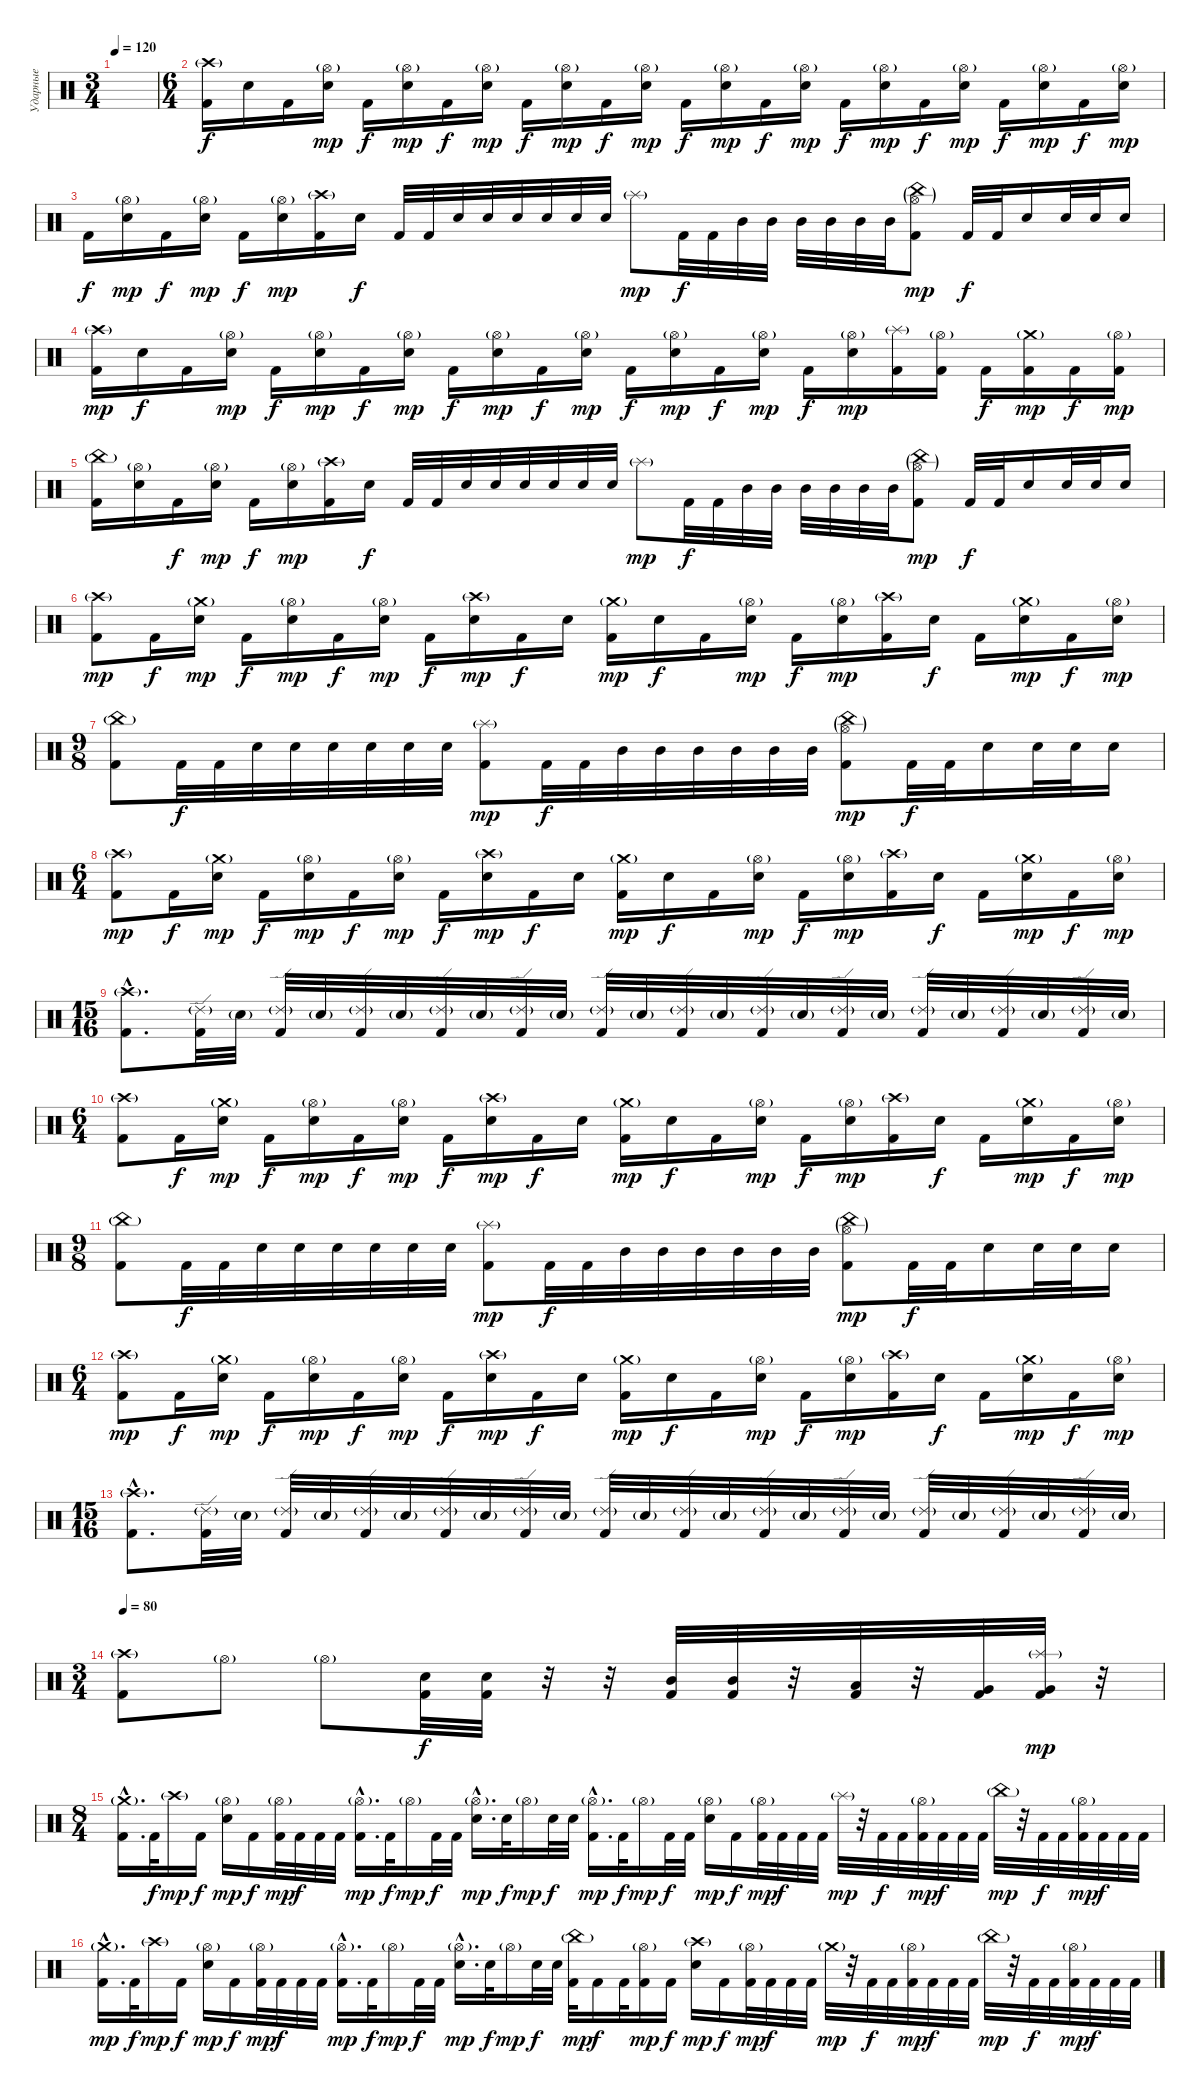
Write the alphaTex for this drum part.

\track ("Ударные" "Ударные") {instrument percussion}
\staff {score}
\articulation defaults
\ts (3 4)
\tempo 120
\clef neutral
\ks c
|
\ts (6 4)
("Crash high (hit)"{g} "Kick (hit) 2").16 "Electric Snare (hit)".16{dy f} "Kick (hit) 2".16 ("Hi-Hat (open)"{g} "Electric Snare (hit)").16{dy mp} "Kick (hit) 2".16{dy f} ("Hi-Hat (open)"{g} "Electric Snare (hit)").16{dy mp} "Kick (hit) 2".16{dy f} ("Hi-Hat (open)"{g} "Electric Snare (hit)").16{dy mp} "Kick (hit) 2".16{dy f} ("Hi-Hat (open)"{g} "Electric Snare (hit)").16{dy mp} "Kick (hit) 2".16{dy f} ("Hi-Hat (open)"{g} "Electric Snare (hit)").16{dy mp} "Kick (hit) 2".16{dy f} ("Hi-Hat (open)"{g} "Electric Snare (hit)").16{dy mp} "Kick (hit) 2".16{dy f} ("Hi-Hat (open)"{g} "Electric Snare (hit)").16{dy mp} "Kick (hit) 2".16{dy f} ("Hi-Hat (open)"{g} "Electric Snare (hit)").16{dy mp} "Kick (hit) 2".16{dy f} ("Hi-Hat (open)"{g} "Electric Snare (hit)").16{dy mp} "Kick (hit) 2".16{dy f} ("Hi-Hat (open)"{g} "Electric Snare (hit)").16{dy mp} "Kick (hit) 2".16{dy f} ("Hi-Hat (open)"{g} "Electric Snare (hit)").16{dy mp} |
"Kick (hit) 2".16{dy f} ("Hi-Hat (open)"{g} "Electric Snare (hit)").16{dy mp} "Kick (hit) 2".16{dy f} ("Hi-Hat (open)"{g} "Electric Snare (hit)").16{dy mp} "Kick (hit) 2".16{dy f} ("Hi-Hat (open)"{g} "Electric Snare (hit)").16{dy mp} ("Crash high (hit)"{g} "Kick (hit) 2").16 "Electric Snare (hit)".16{dy f} "Kick (hit) 2".32 "Kick (hit) 2".32 "Electric Snare (hit)".32 "Electric Snare (hit)".32 "Electric Snare (hit)".32 "Electric Snare (hit)".32 "Electric Snare (hit)".32 "Electric Snare (hit)".32 "Splash (hit)"{g}.8{dy mp} "Kick (hit) 2".32{dy f} "Kick (hit) 2".32 "Mid Tom (hit)".32 "Mid Tom (hit)".32 "Mid Tom (hit)".32 "Mid Tom (hit)".32 "Mid Tom (hit)".32 "Mid Tom (hit)".32 ("Hi-Hat (open)"{g} "China (hit)"{g} "Kick (hit) 2").8{dy mp} "Kick (hit) 2".32{dy f} "Kick (hit) 2".32 "Electric Snare (hit)".16 "Electric Snare (hit)".32 "Electric Snare (hit)".32 "Electric Snare (hit)".16 |
("Crash high (hit)"{g} "Kick (hit) 2").16{dy mp} "Electric Snare (hit)".16{dy f} "Kick (hit) 2".16 ("Hi-Hat (open)"{g} "Electric Snare (hit)").16{dy mp} "Kick (hit) 2".16{dy f} ("Hi-Hat (open)"{g} "Electric Snare (hit)").16{dy mp} "Kick (hit) 2".16{dy f} ("Hi-Hat (open)"{g} "Electric Snare (hit)").16{dy mp} "Kick (hit) 2".16{dy f} ("Hi-Hat (open)"{g} "Electric Snare (hit)").16{dy mp} "Kick (hit) 2".16{dy f} ("Hi-Hat (open)"{g} "Electric Snare (hit)").16{dy mp} "Kick (hit) 2".16{dy f} ("Hi-Hat (open)"{g} "Electric Snare (hit)").16{dy mp} "Kick (hit) 2".16{dy f} ("Hi-Hat (open)"{g} "Electric Snare (hit)").16{dy mp} "Kick (hit) 2".16{dy f} ("Hi-Hat (open)"{g} "Electric Snare (hit)").16{dy mp} ("Splash (hit)"{g} "Kick (hit) 2").16 ("Hi-Hat (open)"{g} "Kick (hit) 2").16 "Kick (hit) 2".16{dy f} ("Crash medium (hit)"{g} "Kick (hit) 2").16{dy mp} "Kick (hit) 2".16{dy f} ("Hi-Hat (open)"{g} "Kick (hit) 2").16{dy mp} |
("China (hit)"{g} "Kick (hit) 2").16 ("Hi-Hat (open)"{g} "Electric Snare (hit)").16 "Kick (hit) 2".16{dy f} ("Hi-Hat (open)"{g} "Electric Snare (hit)").16{dy mp} "Kick (hit) 2".16{dy f} ("Hi-Hat (open)"{g} "Electric Snare (hit)").16{dy mp} ("Crash high (hit)"{g} "Kick (hit) 2").16 "Electric Snare (hit)".16{dy f} "Kick (hit) 2".32 "Kick (hit) 2".32 "Electric Snare (hit)".32 "Electric Snare (hit)".32 "Electric Snare (hit)".32 "Electric Snare (hit)".32 "Electric Snare (hit)".32 "Electric Snare (hit)".32 "Splash (hit)"{g}.8{dy mp} "Kick (hit) 2".32{dy f} "Kick (hit) 2".32 "Mid Tom (hit)".32 "Mid Tom (hit)".32 "Mid Tom (hit)".32 "Mid Tom (hit)".32 "Mid Tom (hit)".32 "Mid Tom (hit)".32 ("Hi-Hat (open)"{g} "China (hit)"{g} "Kick (hit) 2").8{dy mp} "Kick (hit) 2".32{dy f} "Kick (hit) 2".32 "Electric Snare (hit)".16 "Electric Snare (hit)".32 "Electric Snare (hit)".32 "Electric Snare (hit)".16 |
("Crash high (hit)"{g} "Kick (hit) 2").8{dy mp} "Kick (hit) 2".16{dy f} ("Crash medium (hit)"{g} "Electric Snare (hit)").16{dy mp} "Kick (hit) 2".16{dy f} ("Hi-Hat (open)"{g} "Electric Snare (hit)").16{dy mp} "Kick (hit) 2".16{dy f} ("Hi-Hat (open)"{g} "Electric Snare (hit)").16{dy mp} "Kick (hit) 2".16{dy f} ("Crash high (hit)"{g} "Electric Snare (hit)").16{dy mp} "Kick (hit) 2".16{dy f} "Electric Snare (hit)".16 ("Crash medium (hit)"{g} "Kick (hit) 2").16{dy mp} "Electric Snare (hit)".16{dy f} "Kick (hit) 2".16 ("Hi-Hat (open)"{g} "Electric Snare (hit)").16{dy mp} "Kick (hit) 2".16{dy f} ("Hi-Hat (open)"{g} "Electric Snare (hit)").16{dy mp} ("Crash high (hit)"{g} "Kick (hit) 2").16 "Electric Snare (hit)".16{dy f} "Kick (hit) 2".16 ("Crash medium (hit)"{g} "Electric Snare (hit)").16{dy mp} "Kick (hit) 2".16{dy f} ("Hi-Hat (open)"{g} "Electric Snare (hit)").16{dy mp} |
\ts (9 8)
("China (hit)"{g} "Kick (hit) 2").8 "Kick (hit) 2".32{dy f} "Kick (hit) 2".32 "Electric Snare (hit)".32 "Electric Snare (hit)".32 "Electric Snare (hit)".32 "Electric Snare (hit)".32 "Electric Snare (hit)".32 "Electric Snare (hit)".32 ("Splash (hit)"{g} "Kick (hit) 2").8{dy mp} "Kick (hit) 2".32{dy f} "Kick (hit) 2".32 "Mid Tom (hit)".32 "Mid Tom (hit)".32 "Mid Tom (hit)".32 "Mid Tom (hit)".32 "Mid Tom (hit)".32 "Mid Tom (hit)".32 ("China (hit)"{g} "Hi-Hat (open)"{g} "Kick (hit) 2").8{dy mp} "Kick (hit) 2".32{dy f} "Kick (hit) 2".32 "Electric Snare (hit)".16 "Electric Snare (hit)".32 "Electric Snare (hit)".32 "Electric Snare (hit)".16 |
\ts (6 4)
("Crash high (hit)"{g} "Kick (hit) 2").8{dy mp} "Kick (hit) 2".16{dy f} ("Crash medium (hit)"{g} "Electric Snare (hit)").16{dy mp} "Kick (hit) 2".16{dy f} ("Hi-Hat (open)"{g} "Electric Snare (hit)").16{dy mp} "Kick (hit) 2".16{dy f} ("Hi-Hat (open)"{g} "Electric Snare (hit)").16{dy mp} "Kick (hit) 2".16{dy f} ("Crash high (hit)"{g} "Electric Snare (hit)").16{dy mp} "Kick (hit) 2".16{dy f} "Electric Snare (hit)".16 ("Crash medium (hit)"{g} "Kick (hit) 2").16{dy mp} "Electric Snare (hit)".16{dy f} "Kick (hit) 2".16 ("Hi-Hat (open)"{g} "Electric Snare (hit)").16{dy mp} "Kick (hit) 2".16{dy f} ("Hi-Hat (open)"{g} "Electric Snare (hit)").16{dy mp} ("Crash high (hit)"{g} "Kick (hit) 2").16 "Electric Snare (hit)".16{dy f} "Kick (hit) 2".16 ("Crash medium (hit)"{g} "Electric Snare (hit)").16{dy mp} "Kick (hit) 2".16{dy f} ("Hi-Hat (open)"{g} "Electric Snare (hit)").16{dy mp} |
\ts (15 16)
("Crash high (hit)"{g hac} "Kick (hit) 2"{hac}).8{d} ("Ride (edge) 2"{g} "Kick (hit) 2").32 "Electric Snare (hit)"{g}.32 ("Ride (edge) 2"{g} "Kick (hit) 2").32 "Electric Snare (hit)"{g}.32 ("Ride (edge) 2"{g} "Kick (hit) 2").32 "Electric Snare (hit)"{g}.32 ("Ride (edge) 2"{g} "Kick (hit) 2").32 "Electric Snare (hit)"{g}.32 ("Ride (edge) 2"{g} "Kick (hit) 2").32 "Electric Snare (hit)"{g}.32 ("Ride (edge) 2"{g} "Kick (hit) 2").32 "Electric Snare (hit)"{g}.32 ("Ride (edge) 2"{g} "Kick (hit) 2").32 "Electric Snare (hit)"{g}.32 ("Ride (edge) 2"{g} "Kick (hit) 2").32 "Electric Snare (hit)"{g}.32 ("Ride (edge) 2"{g} "Kick (hit) 2").32 "Electric Snare (hit)"{g}.32 ("Ride (edge) 2"{g} "Kick (hit) 2").32 "Electric Snare (hit)"{g}.32 ("Ride (edge) 2"{g} "Kick (hit) 2").32 "Electric Snare (hit)"{g}.32 ("Ride (edge) 2"{g} "Kick (hit) 2").32 "Electric Snare (hit)"{g}.32 |
\ts (6 4)
("Crash high (hit)"{g} "Kick (hit) 2").8 "Kick (hit) 2".16{dy f} ("Crash medium (hit)"{g} "Electric Snare (hit)").16{dy mp} "Kick (hit) 2".16{dy f} ("Hi-Hat (open)"{g} "Electric Snare (hit)").16{dy mp} "Kick (hit) 2".16{dy f} ("Hi-Hat (open)"{g} "Electric Snare (hit)").16{dy mp} "Kick (hit) 2".16{dy f} ("Crash high (hit)"{g} "Electric Snare (hit)").16{dy mp} "Kick (hit) 2".16{dy f} "Electric Snare (hit)".16 ("Crash medium (hit)"{g} "Kick (hit) 2").16{dy mp} "Electric Snare (hit)".16{dy f} "Kick (hit) 2".16 ("Hi-Hat (open)"{g} "Electric Snare (hit)").16{dy mp} "Kick (hit) 2".16{dy f} ("Hi-Hat (open)"{g} "Electric Snare (hit)").16{dy mp} ("Crash high (hit)"{g} "Kick (hit) 2").16 "Electric Snare (hit)".16{dy f} "Kick (hit) 2".16 ("Crash medium (hit)"{g} "Electric Snare (hit)").16{dy mp} "Kick (hit) 2".16{dy f} ("Hi-Hat (open)"{g} "Electric Snare (hit)").16{dy mp} |
\ts (9 8)
("China (hit)"{g} "Kick (hit) 2").8 "Kick (hit) 2".32{dy f} "Kick (hit) 2".32 "Electric Snare (hit)".32 "Electric Snare (hit)".32 "Electric Snare (hit)".32 "Electric Snare (hit)".32 "Electric Snare (hit)".32 "Electric Snare (hit)".32 ("Splash (hit)"{g} "Kick (hit) 2").8{dy mp} "Kick (hit) 2".32{dy f} "Kick (hit) 2".32 "Mid Tom (hit)".32 "Mid Tom (hit)".32 "Mid Tom (hit)".32 "Mid Tom (hit)".32 "Mid Tom (hit)".32 "Mid Tom (hit)".32 ("China (hit)"{g} "Hi-Hat (open)"{g} "Kick (hit) 2").8{dy mp} "Kick (hit) 2".32{dy f} "Kick (hit) 2".32 "Electric Snare (hit)".16 "Electric Snare (hit)".32 "Electric Snare (hit)".32 "Electric Snare (hit)".16 |
\ts (6 4)
("Crash high (hit)"{g} "Kick (hit) 2").8{dy mp} "Kick (hit) 2".16{dy f} ("Crash medium (hit)"{g} "Electric Snare (hit)").16{dy mp} "Kick (hit) 2".16{dy f} ("Hi-Hat (open)"{g} "Electric Snare (hit)").16{dy mp} "Kick (hit) 2".16{dy f} ("Hi-Hat (open)"{g} "Electric Snare (hit)").16{dy mp} "Kick (hit) 2".16{dy f} ("Crash high (hit)"{g} "Electric Snare (hit)").16{dy mp} "Kick (hit) 2".16{dy f} "Electric Snare (hit)".16 ("Crash medium (hit)"{g} "Kick (hit) 2").16{dy mp} "Electric Snare (hit)".16{dy f} "Kick (hit) 2".16 ("Hi-Hat (open)"{g} "Electric Snare (hit)").16{dy mp} "Kick (hit) 2".16{dy f} ("Hi-Hat (open)"{g} "Electric Snare (hit)").16{dy mp} ("Crash high (hit)"{g} "Kick (hit) 2").16 "Electric Snare (hit)".16{dy f} "Kick (hit) 2".16 ("Crash medium (hit)"{g} "Electric Snare (hit)").16{dy mp} "Kick (hit) 2".16{dy f} ("Hi-Hat (open)"{g} "Electric Snare (hit)").16{dy mp} |
\ts (15 16)
("Crash high (hit)"{g hac} "Kick (hit) 2"{hac}).8{d} ("Ride (edge) 2"{g} "Kick (hit) 2").32 "Electric Snare (hit)"{g}.32 ("Ride (edge) 2"{g} "Kick (hit) 2").32 "Electric Snare (hit)"{g}.32 ("Ride (edge) 2"{g} "Kick (hit) 2").32 "Electric Snare (hit)"{g}.32 ("Ride (edge) 2"{g} "Kick (hit) 2").32 "Electric Snare (hit)"{g}.32 ("Ride (edge) 2"{g} "Kick (hit) 2").32 "Electric Snare (hit)"{g}.32 ("Ride (edge) 2"{g} "Kick (hit) 2").32 "Electric Snare (hit)"{g}.32 ("Ride (edge) 2"{g} "Kick (hit) 2").32 "Electric Snare (hit)"{g}.32 ("Ride (edge) 2"{g} "Kick (hit) 2").32 "Electric Snare (hit)"{g}.32 ("Ride (edge) 2"{g} "Kick (hit) 2").32 "Electric Snare (hit)"{g}.32 ("Ride (edge) 2"{g} "Kick (hit) 2").32 "Electric Snare (hit)"{g}.32 ("Ride (edge) 2"{g} "Kick (hit) 2").32 "Electric Snare (hit)"{g}.32 ("Ride (edge) 2"{g} "Kick (hit) 2").32 "Electric Snare (hit)"{g}.32 |
\ts (3 4)
\tempo 80
("Crash high (hit)"{g} "Kick (hit) 2").8 "Hi-Hat (open)"{g}.8 "Hi-Hat (open)"{g}.8 ("Electric Snare (hit)" "Kick (hit) 2").32{dy f} ("Electric Snare (hit)" "Kick (hit) 2").32 r.32 r.32 ("Mid Tom (hit)" "Kick (hit) 2").32 ("Mid Tom (hit)" "Kick (hit) 2").32 r.32 ("Low Tom (hit)" "Kick (hit) 2").32 r.32 ("Very Low Tom (hit)" "Kick (hit) 2").32 ("Splash (hit)"{g} "Very Low Tom (hit)" "Kick (hit) 2").32{dy mp} r.32 |
\ts (8 4)
("Crash medium (hit)"{g hac} "Kick (hit) 2"{hac}).16{d} "Kick (hit) 2".32{dy f} "Crash high (hit)"{g}.16{dy mp} "Kick (hit) 2".16{dy f} ("Hi-Hat (open)"{g} "Electric Snare (hit)").16{dy mp} "Kick (hit) 2".16{dy f} ("Hi-Hat (open)"{g} "Kick (hit) 2").32{dy mp} "Kick (hit) 2".32{dy f} "Kick (hit) 2".32 "Kick (hit) 2".32 ("Hi-Hat (open)"{g hac} "Kick (hit) 2"{hac}).16{d dy mp} "Kick (hit) 2".32{dy f} "Hi-Hat (open)"{g}.16{dy mp} "Kick (hit) 2".32{dy f} "Kick (hit) 2".32 ("Hi-Hat (open)"{g hac} "Electric Snare (hit)"{hac}).16{d dy mp} "Electric Snare (hit)".32{dy f} "Hi-Hat (open)"{g}.16{dy mp} "Electric Snare (hit)".32{dy f} "Electric Snare (hit)".32 ("Hi-Hat (open)"{g hac} "Kick (hit) 2"{hac}).16{d dy mp} "Kick (hit) 2".32{dy f} "Hi-Hat (open)"{g}.16{dy mp} "Kick (hit) 2".32{dy f} "Kick (hit) 2".32 ("Hi-Hat (open)"{g} "Electric Snare (hit)").16{dy mp} "Kick (hit) 2".16{dy f} ("Hi-Hat (open)"{g} "Kick (hit) 2").32{dy mp} "Kick (hit) 2".32{dy f} "Kick (hit) 2".32 "Kick (hit) 2".32 "Splash (hit)"{g}.32{dy mp} r.32 "Kick (hit) 2".32{dy f} "Kick (hit) 2".32 ("Hi-Hat (open)"{g} "Kick (hit) 2").32{dy mp} "Kick (hit) 2".32{dy f} "Kick (hit) 2".32 "Kick (hit) 2".32 "China (hit)"{g}.32{dy mp} r.32 "Kick (hit) 2".32{dy f} "Kick (hit) 2".32 ("Hi-Hat (open)"{g} "Kick (hit) 2").32{dy mp} "Kick (hit) 2".32{dy f} "Kick (hit) 2".32 "Kick (hit) 2".32 |
("Crash medium (hit)"{g hac} "Kick (hit) 2"{hac}).16{d dy mp} "Kick (hit) 2".32{dy f} "Crash high (hit)"{g}.16{dy mp} "Kick (hit) 2".16{dy f} ("Hi-Hat (open)"{g} "Electric Snare (hit)").16{dy mp} "Kick (hit) 2".16{dy f} ("Hi-Hat (open)"{g} "Kick (hit) 2").32{dy mp} "Kick (hit) 2".32{dy f} "Kick (hit) 2".32 "Kick (hit) 2".32 ("Hi-Hat (open)"{g hac} "Kick (hit) 2"{hac}).16{d dy mp} "Kick (hit) 2".32{dy f} "Hi-Hat (open)"{g}.16{dy mp} "Kick (hit) 2".32{dy f} "Kick (hit) 2".32 ("Hi-Hat (open)"{g hac} "Electric Snare (hit)"{hac}).16{d dy mp} "Electric Snare (hit)".32{dy f} "Hi-Hat (open)"{g}.16{dy mp} "Electric Snare (hit)".32{dy f} "Electric Snare (hit)".32 ("China (hit)"{g} "Kick (hit) 2").32{dy mp} "Kick (hit) 2".16{dy f} "Kick (hit) 2".32 ("Hi-Hat (open)"{g} "Kick (hit) 2").16{dy mp} "Kick (hit) 2".16{dy f} ("Crash high (hit)"{g} "Electric Snare (hit)").16{dy mp} "Kick (hit) 2".16{dy f} ("Hi-Hat (open)"{g} "Kick (hit) 2").32{dy mp} "Kick (hit) 2".32{dy f} "Kick (hit) 2".32 "Kick (hit) 2".32 "Crash medium (hit)"{g}.32{dy mp} r.32 "Kick (hit) 2".32{dy f} "Kick (hit) 2".32 ("Hi-Hat (open)"{g} "Kick (hit) 2").32{dy mp} "Kick (hit) 2".32{dy f} "Kick (hit) 2".32 "Kick (hit) 2".32 "China (hit)"{g}.32{dy mp} r.32 "Kick (hit) 2".32{dy f} "Kick (hit) 2".32 ("Hi-Hat (open)"{g} "Kick (hit) 2").32{dy mp} "Kick (hit) 2".32{dy f} "Kick (hit) 2".32 "Kick (hit) 2".32
